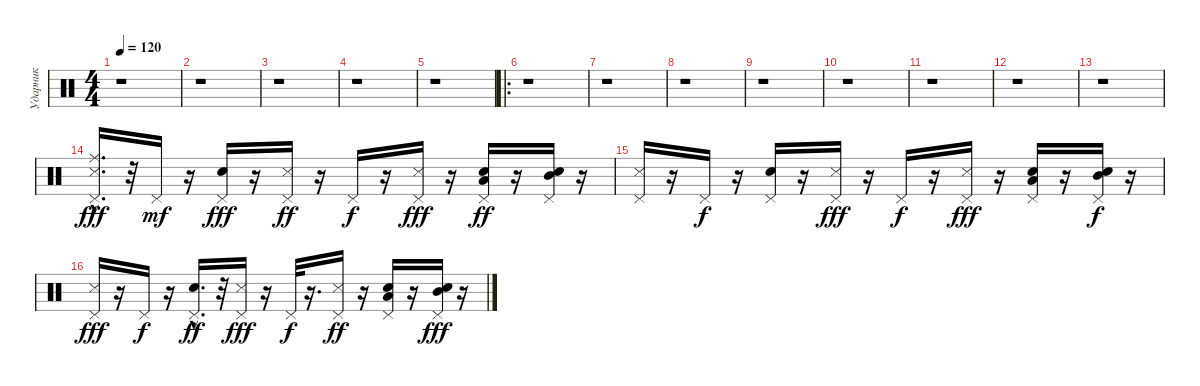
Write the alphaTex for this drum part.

\track ("Ударник" "Ударник") {instrument percussion}
\staff {score}
\articulation defaults
\ts (4 4)
\tempo 120
\clef neutral
\ks c
r.1{dy fff} |
r.1 |
r.1 |
r.1 |
r.1 |
\ro
r.1 |
r.1 |
r.1 |
r.1 |
r.1 |
r.1 |
r.1 |
r.1 |
("Ride (middle)" "Pedal Hi-Hat (hit)" "Metronome (hit)"{hac}).16{d} r.32 "Pedal Hi-Hat (hit)".16{dy mf} r.16 ("Pedal Hi-Hat (hit)" "Snare (hit) 2").16{dy fff} r.16 ("Metronome (hit)" "Pedal Hi-Hat (hit)").16{dy ff} r.16 "Pedal Hi-Hat (hit)".16{dy f} r.16 ("Metronome (hit)" "Pedal Hi-Hat (hit)").16{dy fff} r.16 ("Snare (hit) 2" "Low Tom (hit)" "Pedal Hi-Hat (hit)").16{dy ff} r.16 ("Snare (hit) 2" "Mid Tom (hit)" "Pedal Hi-Hat (hit)").16 r.16 |
("Metronome (hit)" "Pedal Hi-Hat (hit)").16 r.16 "Pedal Hi-Hat (hit)".16{dy f} r.16 ("Snare (hit) 2" "Pedal Hi-Hat (hit)").16 r.16 ("Metronome (hit)" "Pedal Hi-Hat (hit)").16{dy fff} r.16 "Pedal Hi-Hat (hit)".16{dy f} r.16 ("Metronome (hit)" "Pedal Hi-Hat (hit)").16{dy fff} r.16 ("Snare (hit) 2" "Low Tom (hit)" "Pedal Hi-Hat (hit)").16 r.16 ("Snare (hit) 2" "Mid Tom (hit)" "Pedal Hi-Hat (hit)").16{dy f} r.16 |
("Pedal Hi-Hat (hit)" "Metronome (hit)").16{dy fff} r.16 "Pedal Hi-Hat (hit)".16{dy f} r.16 ("Snare (hit) 2"{hac} "Pedal Hi-Hat (hit)").16{d dy ff} r.32 ("Metronome (hit)" "Pedal Hi-Hat (hit)").16{dy fff} r.16 "Pedal Hi-Hat (hit)".32{dy f} r.16{d} ("Metronome (hit)" "Pedal Hi-Hat (hit)").16{dy ff} r.16 ("Low Tom (hit)" "Snare (hit) 2" "Pedal Hi-Hat (hit)").16 r.16 ("Mid Tom (hit)" "Snare (hit) 2" "Pedal Hi-Hat (hit)").16{dy fff} r.16
